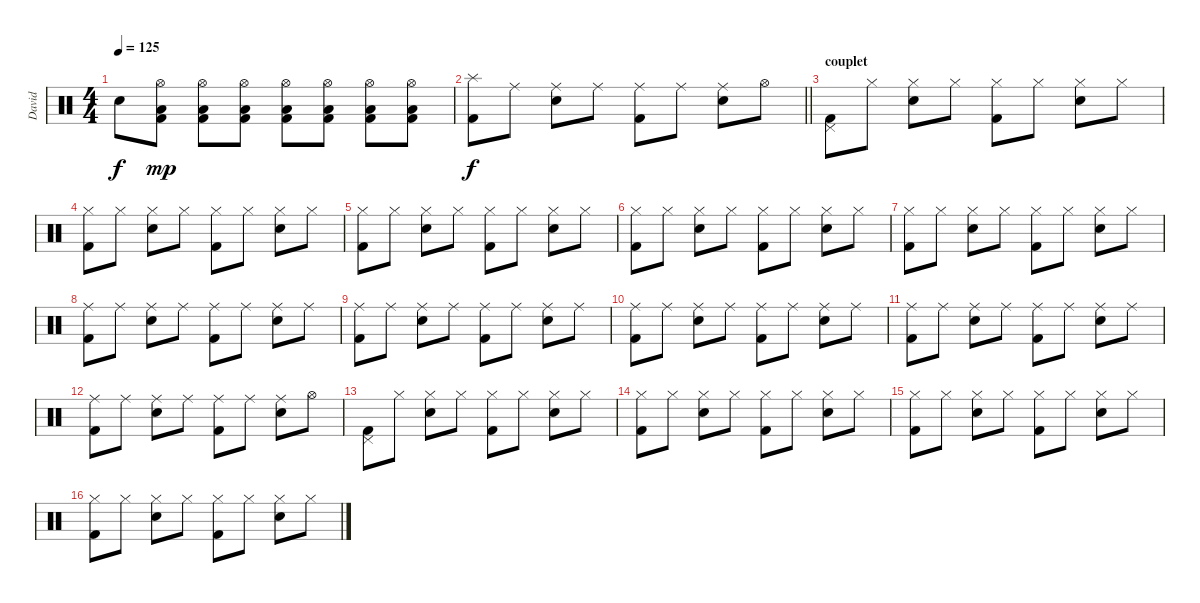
\track ("David" "David") {instrument percussion}
\staff {score}
\articulation defaults
\ts (4 4)
\tempo 125
\clef neutral
\ks c "Electric Snare (hit)".8{dy f}
("Hi-Hat (open)" "Low Floor Tom (hit)" "Kick (hit) 2").8{dy mp} ("Hi-Hat (open)" "Low Floor Tom (hit)" "Kick (hit) 2").8 ("Hi-Hat (open)" "Low Floor Tom (hit)" "Kick (hit) 2").8 ("Hi-Hat (open)" "Low Floor Tom (hit)" "Kick (hit) 2").8 ("Hi-Hat (open)" "Low Floor Tom (hit)" "Kick (hit) 2").8 ("Hi-Hat (open)" "Low Floor Tom (hit)" "Kick (hit) 2").8 ("Hi-Hat (open)" "Low Floor Tom (hit)" "Kick (hit) 2").8 |
\barLineRight lightlight
("Splash (hit)" "Kick (hit) 2").8{dy f} "Ride (middle)".8 ("Ride (middle)" "Electric Snare (hit)").8 "Ride (middle)".8 ("Ride (middle)" "Kick (hit) 2").8 "Ride (middle)".8 ("Ride (middle)" "Electric Snare (hit)").8 "Hi-Hat (open)".8 |
\section ("" "couplet")
("Pedal Hi-Hat (hit)" "Kick (hit) 2").8 "Hi-Hat (closed)".8 ("Hi-Hat (closed)" "Electric Snare (hit)").8 "Hi-Hat (closed)".8 ("Hi-Hat (closed)" "Kick (hit) 2").8 "Hi-Hat (closed)".8 ("Hi-Hat (closed)" "Electric Snare (hit)").8 "Hi-Hat (closed)".8 |
("Hi-Hat (closed)" "Kick (hit) 2").8 "Hi-Hat (closed)".8 ("Hi-Hat (closed)" "Electric Snare (hit)").8 "Hi-Hat (closed)".8 ("Hi-Hat (closed)" "Kick (hit) 2").8 "Hi-Hat (closed)".8 ("Hi-Hat (closed)" "Electric Snare (hit)").8 "Hi-Hat (closed)".8 |
("Hi-Hat (closed)" "Kick (hit) 2").8 "Hi-Hat (closed)".8 ("Hi-Hat (closed)" "Electric Snare (hit)").8 "Hi-Hat (closed)".8 ("Hi-Hat (closed)" "Kick (hit) 2").8 "Hi-Hat (closed)".8 ("Hi-Hat (closed)" "Electric Snare (hit)").8 "Hi-Hat (closed)".8 |
("Hi-Hat (closed)" "Kick (hit) 2").8 "Hi-Hat (closed)".8 ("Hi-Hat (closed)" "Electric Snare (hit)").8 "Hi-Hat (closed)".8 ("Hi-Hat (closed)" "Kick (hit) 2").8 "Hi-Hat (closed)".8 ("Hi-Hat (closed)" "Electric Snare (hit)").8 "Hi-Hat (closed)".8 |
("Hi-Hat (closed)" "Kick (hit) 2").8 "Hi-Hat (closed)".8 ("Hi-Hat (closed)" "Electric Snare (hit)").8 "Hi-Hat (closed)".8 ("Hi-Hat (closed)" "Kick (hit) 2").8 "Hi-Hat (closed)".8 ("Hi-Hat (closed)" "Electric Snare (hit)").8 "Hi-Hat (closed)".8 |
("Ride (middle)" "Kick (hit) 2").8 "Ride (middle)".8 ("Ride (middle)" "Electric Snare (hit)").8 "Ride (middle)".8 ("Ride (middle)" "Kick (hit) 2").8 "Ride (middle)".8 ("Ride (middle)" "Electric Snare (hit)").8 "Ride (middle)".8 |
("Ride (middle)" "Kick (hit) 2").8 "Ride (middle)".8 ("Ride (middle)" "Electric Snare (hit)").8 "Ride (middle)".8 ("Ride (middle)" "Kick (hit) 2").8 "Ride (middle)".8 ("Ride (middle)" "Electric Snare (hit)").8 "Ride (middle)".8 |
("Ride (middle)" "Kick (hit) 2").8 "Ride (middle)".8 ("Ride (middle)" "Electric Snare (hit)").8 "Ride (middle)".8 ("Ride (middle)" "Kick (hit) 2").8 "Ride (middle)".8 ("Ride (middle)" "Electric Snare (hit)").8 "Ride (middle)".8 |
("Ride (middle)" "Kick (hit) 2").8 "Ride (middle)".8 ("Ride (middle)" "Electric Snare (hit)").8 "Ride (middle)".8 ("Ride (middle)" "Kick (hit) 2").8 "Ride (middle)".8 ("Ride (middle)" "Electric Snare (hit)").8 "Ride (middle)".8 |
("Ride (middle)" "Kick (hit) 2").8 "Ride (middle)".8 ("Ride (middle)" "Electric Snare (hit)").8 "Ride (middle)".8 ("Ride (middle)" "Kick (hit) 2").8 "Ride (middle)".8 ("Ride (middle)" "Electric Snare (hit)").8 "Hi-Hat (open)".8 |
("Pedal Hi-Hat (hit)" "Kick (hit) 2").8 "Hi-Hat (closed)".8 ("Hi-Hat (closed)" "Electric Snare (hit)").8 "Hi-Hat (closed)".8 ("Hi-Hat (closed)" "Kick (hit) 2").8 "Hi-Hat (closed)".8 ("Hi-Hat (closed)" "Electric Snare (hit)").8 "Hi-Hat (closed)".8 |
("Hi-Hat (closed)" "Kick (hit) 2").8 "Hi-Hat (closed)".8 ("Hi-Hat (closed)" "Electric Snare (hit)").8 "Hi-Hat (closed)".8 ("Hi-Hat (closed)" "Kick (hit) 2").8 "Hi-Hat (closed)".8 ("Hi-Hat (closed)" "Electric Snare (hit)").8 "Hi-Hat (closed)".8 |
("Hi-Hat (closed)" "Kick (hit) 2").8 "Hi-Hat (closed)".8 ("Hi-Hat (closed)" "Electric Snare (hit)").8 "Hi-Hat (closed)".8 ("Hi-Hat (closed)" "Kick (hit) 2").8 "Hi-Hat (closed)".8 ("Hi-Hat (closed)" "Electric Snare (hit)").8 "Hi-Hat (closed)".8 |
("Hi-Hat (closed)" "Kick (hit) 2").8 "Hi-Hat (closed)".8 ("Hi-Hat (closed)" "Electric Snare (hit)").8 "Hi-Hat (closed)".8 ("Hi-Hat (closed)" "Kick (hit) 2").8 "Hi-Hat (closed)".8 ("Hi-Hat (closed)" "Electric Snare (hit)").8 "Hi-Hat (closed)".8
